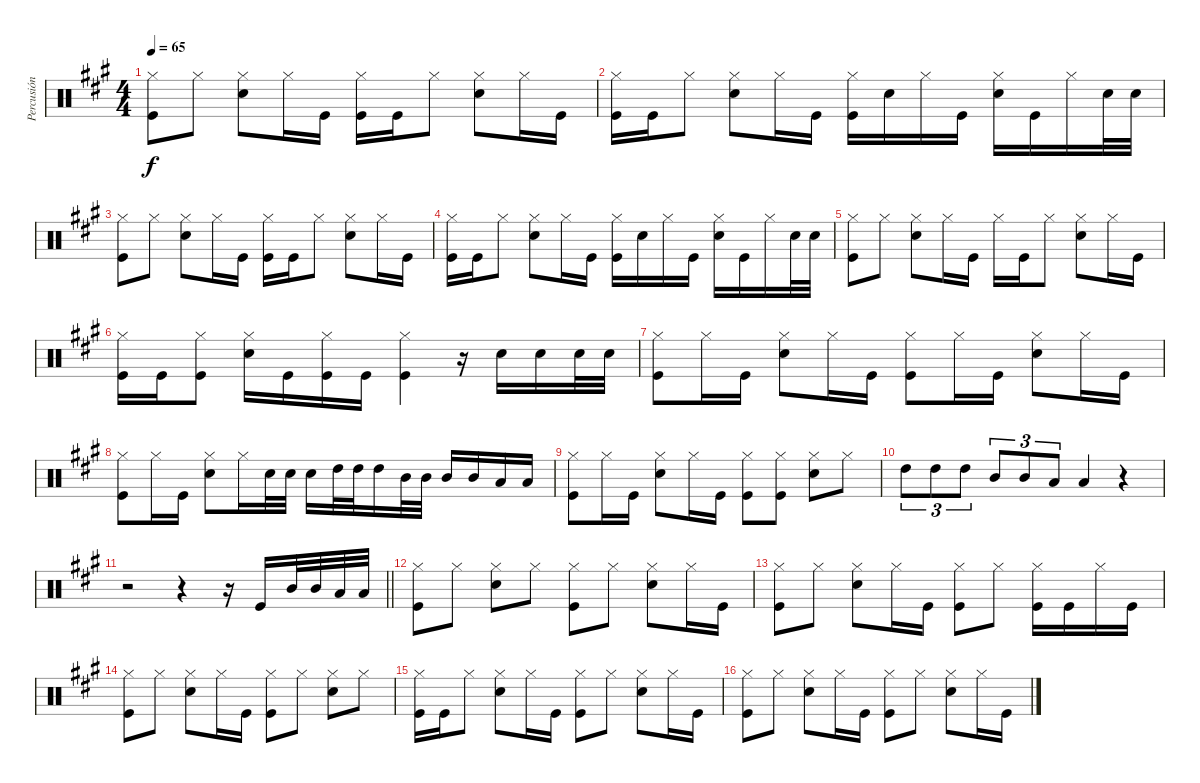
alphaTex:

\track ("Percusión" "Percusión") {instrument percussion}
\staff {score}
\articulation defaults
\ts (4 4)
\tempo 65
\clef neutral
\ks f#minor
("Hi-Hat (closed)" "Kick (hit)").8{dy f} "Hi-Hat (closed)".8 ("Hi-Hat (closed)" "Snare (hit) 2").8 "Hi-Hat (closed)".16 "Kick (hit)".16 ("Hi-Hat (closed)" "Kick (hit)").16 "Kick (hit)".16 "Hi-Hat (closed)".8 ("Hi-Hat (closed)" "Snare (hit) 2").8 "Hi-Hat (closed)".16 "Kick (hit)".16 |
("Hi-Hat (closed)" "Kick (hit)").16 "Kick (hit)".16 "Hi-Hat (closed)".8 ("Hi-Hat (closed)" "Snare (hit) 2").8 "Hi-Hat (closed)".16 "Kick (hit)".16 ("Hi-Hat (closed)" "Kick (hit)").16 "Snare (hit) 2".16 "Hi-Hat (closed)".16 "Kick (hit)".16 ("Hi-Hat (closed)" "Snare (hit) 2").16 "Kick (hit)".16 "Hi-Hat (closed)".16 "Snare (hit) 2".32 "Snare (hit) 2".32 |
("Hi-Hat (closed)" "Kick (hit)").8 "Hi-Hat (closed)".8 ("Hi-Hat (closed)" "Snare (hit) 2").8 "Hi-Hat (closed)".16 "Kick (hit)".16 ("Hi-Hat (closed)" "Kick (hit)").16 "Kick (hit)".16 "Hi-Hat (closed)".8 ("Hi-Hat (closed)" "Snare (hit) 2").8 "Hi-Hat (closed)".16 "Kick (hit)".16 |
("Hi-Hat (closed)" "Kick (hit)").16 "Kick (hit)".16 "Hi-Hat (closed)".8 ("Hi-Hat (closed)" "Snare (hit) 2").8 "Hi-Hat (closed)".16 "Kick (hit)".16 ("Hi-Hat (closed)" "Kick (hit)").16 "Snare (hit) 2".16 "Hi-Hat (closed)".16 "Kick (hit)".16 ("Hi-Hat (closed)" "Snare (hit) 2").16 "Kick (hit)".16 "Hi-Hat (closed)".16 "Snare (hit) 2".32 "Snare (hit) 2".32 |
("Hi-Hat (closed)" "Kick (hit)").8 "Hi-Hat (closed)".8 ("Hi-Hat (closed)" "Snare (hit) 2").8 "Hi-Hat (closed)".16 "Kick (hit)".16 "Hi-Hat (closed)".16 "Kick (hit)".16 "Hi-Hat (closed)".8 ("Hi-Hat (closed)" "Snare (hit) 2").8 "Hi-Hat (closed)".16 "Kick (hit)".16 |
("Hi-Hat (closed)" "Kick (hit)").16 "Kick (hit)".16 ("Hi-Hat (closed)" "Kick (hit)").8 ("Hi-Hat (closed)" "Snare (hit) 2").16 "Kick (hit)".16 ("Hi-Hat (closed)" "Kick (hit)").16 "Kick (hit)".16 ("Hi-Hat (closed)" "Kick (hit)").4 r.16 "Snare (hit) 2".16 "Snare (hit) 2".16 "Snare (hit) 2".32 "Snare (hit) 2".32 |
("Hi-Hat (closed)" "Kick (hit)").8 "Hi-Hat (closed)".16 "Kick (hit)".16 ("Hi-Hat (closed)" "Snare (hit) 2").8 "Hi-Hat (closed)".16 "Kick (hit)".16 ("Hi-Hat (closed)" "Kick (hit)").8 "Hi-Hat (closed)".16 "Kick (hit)".16 ("Hi-Hat (closed)" "Snare (hit) 2").8 "Hi-Hat (closed)".16 "Kick (hit)".16 |
("Hi-Hat (closed)" "Kick (hit)").8 "Hi-Hat (closed)".16 "Kick (hit)".16 ("Hi-Hat (closed)" "Snare (hit) 2").8 "Hi-Hat (closed)".16 "Snare (hit) 2".32 "Snare (hit) 2".32 "Snare (hit) 2".16 "High Tom (hit)".32 "High Tom (hit)".32 "High Tom (hit)".16 "Mid Tom (hit)".32 "Mid Tom (hit)".32 "Mid Tom (hit)".16 "Mid Tom (hit)".16 "Low Tom (hit)".16 "Low Tom (hit)".16 |
("Hi-Hat (closed)" "Kick (hit)").8 "Hi-Hat (closed)".16 "Kick (hit)".16 ("Hi-Hat (closed)" "Snare (hit) 2").8 "Hi-Hat (closed)".16 "Kick (hit)".16 ("Hi-Hat (closed)" "Kick (hit)").8 ("Hi-Hat (closed)" "Kick (hit)").8 ("Hi-Hat (closed)" "Snare (hit) 2").8 "Hi-Hat (closed)".8 |
"High Tom (hit)".8{tu (3 2)} "High Tom (hit)".8{tu (3 2)} "High Tom (hit)".8{tu (3 2)} "Mid Tom (hit)".8{tu (3 2)} "Mid Tom (hit)".8{tu (3 2)} "Low Tom (hit)".8{tu (3 2)} "Low Tom (hit)".4 r.4 |
\barLineRight lightlight
r.2 r.4 r.16 "Kick (hit)".16 "Mid Tom (hit)".32 "Mid Tom (hit)".32 "Low Tom (hit)".32 "Low Tom (hit)".32 |
\section ("" "")
("Hi-Hat (closed)" "Kick (hit)").8 "Hi-Hat (closed)".8 ("Hi-Hat (closed)" "Snare (hit) 2").8 "Hi-Hat (closed)".8 ("Hi-Hat (closed)" "Kick (hit)").8 "Hi-Hat (closed)".8 ("Hi-Hat (closed)" "Snare (hit) 2").8 "Hi-Hat (closed)".16 "Kick (hit)".16 |
("Hi-Hat (closed)" "Kick (hit)").8 "Hi-Hat (closed)".8 ("Hi-Hat (closed)" "Snare (hit) 2").8 "Hi-Hat (closed)".16 "Kick (hit)".16 ("Hi-Hat (closed)" "Kick (hit)").8 "Hi-Hat (closed)".8 ("Hi-Hat (closed)" "Kick (hit)").16 "Kick (hit)".16 "Hi-Hat (closed)".16 "Kick (hit)".16 |
("Hi-Hat (closed)" "Kick (hit)").8 "Hi-Hat (closed)".8 ("Hi-Hat (closed)" "Snare (hit) 2").8 "Hi-Hat (closed)".16 "Kick (hit)".16 ("Hi-Hat (closed)" "Kick (hit)").8 "Hi-Hat (closed)".8 ("Hi-Hat (closed)" "Snare (hit) 2").8 "Hi-Hat (closed)".8 |
("Hi-Hat (closed)" "Kick (hit)").16 "Kick (hit)".16 "Hi-Hat (closed)".8 ("Hi-Hat (closed)" "Snare (hit) 2").8 "Hi-Hat (closed)".16 "Kick (hit)".16 ("Hi-Hat (closed)" "Kick (hit)").8 "Hi-Hat (closed)".8 ("Hi-Hat (closed)" "Snare (hit) 2").8 "Hi-Hat (closed)".16 "Kick (hit)".16 |
("Hi-Hat (closed)" "Kick (hit)").8 "Hi-Hat (closed)".8 ("Hi-Hat (closed)" "Snare (hit) 2").8 "Hi-Hat (closed)".16 "Kick (hit)".16 ("Hi-Hat (closed)" "Kick (hit)").8 "Hi-Hat (closed)".8 ("Hi-Hat (closed)" "Snare (hit) 2").8 "Hi-Hat (closed)".16 "Kick (hit)".16
